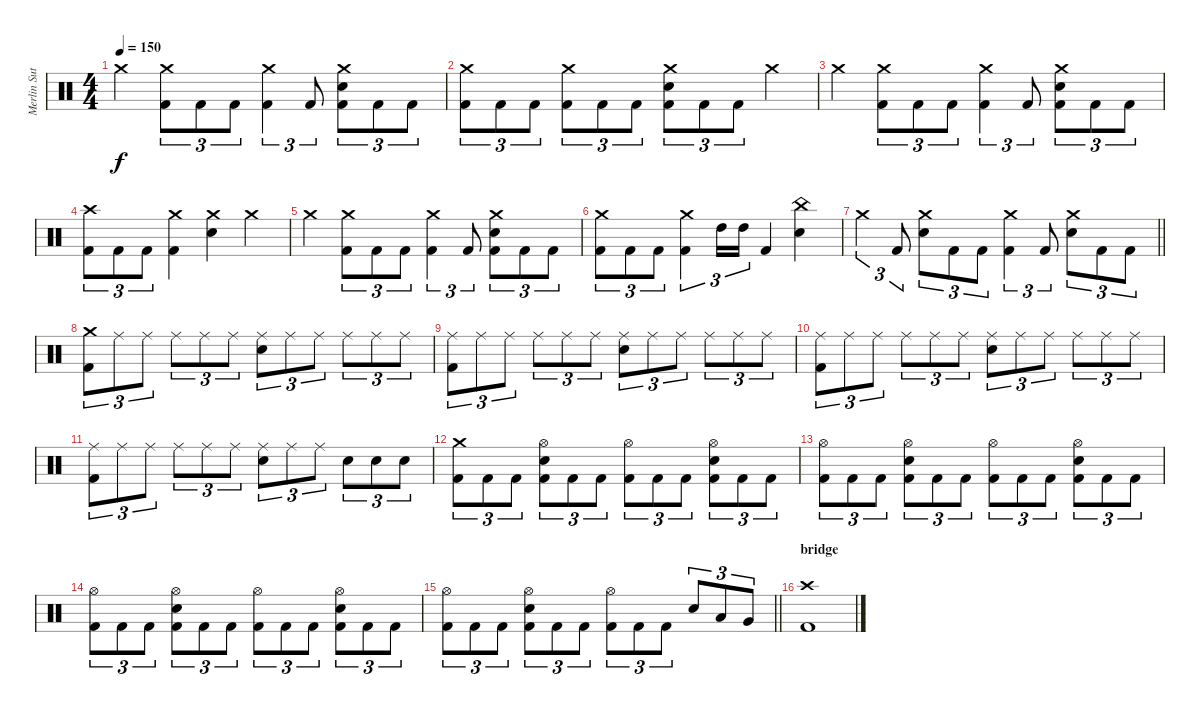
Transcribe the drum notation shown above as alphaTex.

\track ("Merlin Sutter" "Merlin Sut") {instrument percussion}
\staff {score}
\articulation defaults
\ts (4 4)
\tempo 150
\clef neutral
\ks c "Crash medium (hit)".4{dy f}
("Crash medium (hit)" "Kick (hit) 2").8{tu (3 2)} "Kick (hit) 2".8{tu (3 2)} "Kick (hit) 2".8{tu (3 2)} ("Crash medium (hit)" "Kick (hit) 2").4{tu (3 2)} "Kick (hit) 2".8{tu (3 2)} ("Crash medium (hit)" "Snare (hit) 2" "Kick (hit) 2").8{tu (3 2)} "Kick (hit) 2".8{tu (3 2)} "Kick (hit) 2".8{tu (3 2)} |
("Crash medium (hit)" "Kick (hit) 2").8{tu (3 2)} "Kick (hit) 2".8{tu (3 2)} "Kick (hit) 2".8{tu (3 2)} ("Crash medium (hit)" "Kick (hit) 2").8{tu (3 2)} "Kick (hit) 2".8{tu (3 2)} "Kick (hit) 2".8{tu (3 2)} ("Crash medium (hit)" "Snare (hit) 2" "Kick (hit) 2").8{tu (3 2)} "Kick (hit) 2".8{tu (3 2)} "Kick (hit) 2".8{tu (3 2)} "Crash medium (hit)".4 |
"Crash medium (hit)".4 ("Crash medium (hit)" "Kick (hit) 2").8{tu (3 2)} "Kick (hit) 2".8{tu (3 2)} "Kick (hit) 2".8{tu (3 2)} ("Crash medium (hit)" "Kick (hit) 2").4{tu (3 2)} "Kick (hit) 2".8{tu (3 2)} ("Crash medium (hit)" "Snare (hit) 2" "Kick (hit) 2").8{tu (3 2)} "Kick (hit) 2".8{tu (3 2)} "Kick (hit) 2".8{tu (3 2)} |
("Crash high (hit)" "Kick (hit) 2").8{tu (3 2)} "Kick (hit) 2".8{tu (3 2)} "Kick (hit) 2".8{tu (3 2)} ("Crash medium (hit)" "Kick (hit) 2").4 ("Crash medium (hit)" "Snare (hit) 2").4 "Crash medium (hit)".4 |
"Crash medium (hit)".4 ("Crash medium (hit)" "Kick (hit) 2").8{tu (3 2)} "Kick (hit) 2".8{tu (3 2)} "Kick (hit) 2".8{tu (3 2)} ("Crash medium (hit)" "Kick (hit) 2").4{tu (3 2)} "Kick (hit) 2".8{tu (3 2)} ("Crash medium (hit)" "Snare (hit) 2" "Kick (hit) 2").8{tu (3 2)} "Kick (hit) 2".8{tu (3 2)} "Kick (hit) 2".8{tu (3 2)} |
("Crash medium (hit)" "Kick (hit) 2").8{tu (3 2)} "Kick (hit) 2".8{tu (3 2)} "Kick (hit) 2".8{tu (3 2)} ("Crash medium (hit)" "Kick (hit) 2").4{tu (3 2)} "High Tom (hit)".16{tu (3 2)} "High Tom (hit)".16{tu (3 2)} "Kick (hit) 2".4 ("China (hit)" "Snare (hit) 2").4 |
\barLineRight lightlight "Crash medium (hit)".4{tu (3 2)} "Kick (hit) 2".8{tu (3 2)}
("Crash medium (hit)" "Snare (hit) 2").8{tu (3 2)} "Kick (hit) 2".8{tu (3 2)} "Kick (hit) 2".8{tu (3 2)} ("Crash medium (hit)" "Kick (hit) 2").4{tu (3 2)} "Kick (hit) 2".8{tu (3 2)} ("Crash medium (hit)" "Snare (hit) 2").8{tu (3 2)} "Kick (hit) 2".8{tu (3 2)} "Kick (hit) 2".8{tu (3 2)} |
\section ("" "")
("Crash medium (hit)" "Kick (hit) 2").8{tu (3 2)} "Ride (middle)".8{tu (3 2)} "Ride (middle)".8{tu (3 2)} "Ride (middle)".8{tu (3 2)} "Ride (middle)".8{tu (3 2)} "Ride (middle)".8{tu (3 2)} ("Ride (middle)" "Snare (hit) 2").8{tu (3 2)} "Ride (middle)".8{tu (3 2)} "Ride (middle)".8{tu (3 2)} "Ride (middle)".8{tu (3 2)} "Ride (middle)".8{tu (3 2)} "Ride (middle)".8{tu (3 2)} |
("Ride (middle)" "Kick (hit) 2").8{tu (3 2)} "Ride (middle)".8{tu (3 2)} "Ride (middle)".8{tu (3 2)} "Ride (middle)".8{tu (3 2)} "Ride (middle)".8{tu (3 2)} "Ride (middle)".8{tu (3 2)} ("Ride (middle)" "Snare (hit) 2").8{tu (3 2)} "Ride (middle)".8{tu (3 2)} "Ride (middle)".8{tu (3 2)} "Ride (middle)".8{tu (3 2)} "Ride (middle)".8{tu (3 2)} "Ride (middle)".8{tu (3 2)} |
("Ride (middle)" "Kick (hit) 2").8{tu (3 2)} "Ride (middle)".8{tu (3 2)} "Ride (middle)".8{tu (3 2)} "Ride (middle)".8{tu (3 2)} "Ride (middle)".8{tu (3 2)} "Ride (middle)".8{tu (3 2)} ("Ride (middle)" "Snare (hit) 2").8{tu (3 2)} "Ride (middle)".8{tu (3 2)} "Ride (middle)".8{tu (3 2)} "Ride (middle)".8{tu (3 2)} "Ride (middle)".8{tu (3 2)} "Ride (middle)".8{tu (3 2)} |
("Ride (middle)" "Kick (hit) 2").8{tu (3 2)} "Ride (middle)".8{tu (3 2)} "Ride (middle)".8{tu (3 2)} "Ride (middle)".8{tu (3 2)} "Ride (middle)".8{tu (3 2)} "Ride (middle)".8{tu (3 2)} ("Ride (middle)" "Snare (hit) 2").8{tu (3 2)} "Ride (middle)".8{tu (3 2)} "Ride (middle)".8{tu (3 2)} "Snare (hit) 2".8{tu (3 2)} "Snare (hit) 2".8{tu (3 2)} "Snare (hit) 2".8{tu (3 2)} |
("Crash medium (hit)" "Kick (hit) 2").8{tu (3 2)} "Kick (hit) 2".8{tu (3 2)} "Kick (hit) 2".8{tu (3 2)} ("Hi-Hat (open)" "Snare (hit) 2" "Kick (hit) 2").8{tu (3 2)} "Kick (hit) 2".8{tu (3 2)} "Kick (hit) 2".8{tu (3 2)} ("Hi-Hat (open)" "Kick (hit) 2").8{tu (3 2)} "Kick (hit) 2".8{tu (3 2)} "Kick (hit) 2".8{tu (3 2)} ("Hi-Hat (open)" "Snare (hit) 2" "Kick (hit) 2").8{tu (3 2)} "Kick (hit) 2".8{tu (3 2)} "Kick (hit) 2".8{tu (3 2)} |
("Hi-Hat (open)" "Kick (hit) 2").8{tu (3 2)} "Kick (hit) 2".8{tu (3 2)} "Kick (hit) 2".8{tu (3 2)} ("Hi-Hat (open)" "Snare (hit) 2" "Kick (hit) 2").8{tu (3 2)} "Kick (hit) 2".8{tu (3 2)} "Kick (hit) 2".8{tu (3 2)} ("Hi-Hat (open)" "Kick (hit) 2").8{tu (3 2)} "Kick (hit) 2".8{tu (3 2)} "Kick (hit) 2".8{tu (3 2)} ("Hi-Hat (open)" "Snare (hit) 2" "Kick (hit) 2").8{tu (3 2)} "Kick (hit) 2".8{tu (3 2)} "Kick (hit) 2".8{tu (3 2)} |
("Hi-Hat (open)" "Kick (hit) 2").8{tu (3 2)} "Kick (hit) 2".8{tu (3 2)} "Kick (hit) 2".8{tu (3 2)} ("Hi-Hat (open)" "Snare (hit) 2" "Kick (hit) 2").8{tu (3 2)} "Kick (hit) 2".8{tu (3 2)} "Kick (hit) 2".8{tu (3 2)} ("Hi-Hat (open)" "Kick (hit) 2").8{tu (3 2)} "Kick (hit) 2".8{tu (3 2)} "Kick (hit) 2".8{tu (3 2)} ("Hi-Hat (open)" "Snare (hit) 2" "Kick (hit) 2").8{tu (3 2)} "Kick (hit) 2".8{tu (3 2)} "Kick (hit) 2".8{tu (3 2)} |
\barLineRight lightlight
("Hi-Hat (open)" "Kick (hit) 2").8{tu (3 2)} "Kick (hit) 2".8{tu (3 2)} "Kick (hit) 2".8{tu (3 2)} ("Hi-Hat (open)" "Snare (hit) 2" "Kick (hit) 2").8{tu (3 2)} "Kick (hit) 2".8{tu (3 2)} "Kick (hit) 2".8{tu (3 2)} ("Hi-Hat (open)" "Kick (hit) 2").8{tu (3 2)} "Kick (hit) 2".8{tu (3 2)} "Kick (hit) 2".8{tu (3 2)} "Snare (hit) 2".8{tu (3 2)} "Low Tom (hit)".8{tu (3 2)} "Very Low Tom (hit)".8{tu (3 2)} |
\section ("" "bridge")
("Crash high (hit)" "Kick (hit) 2").1
